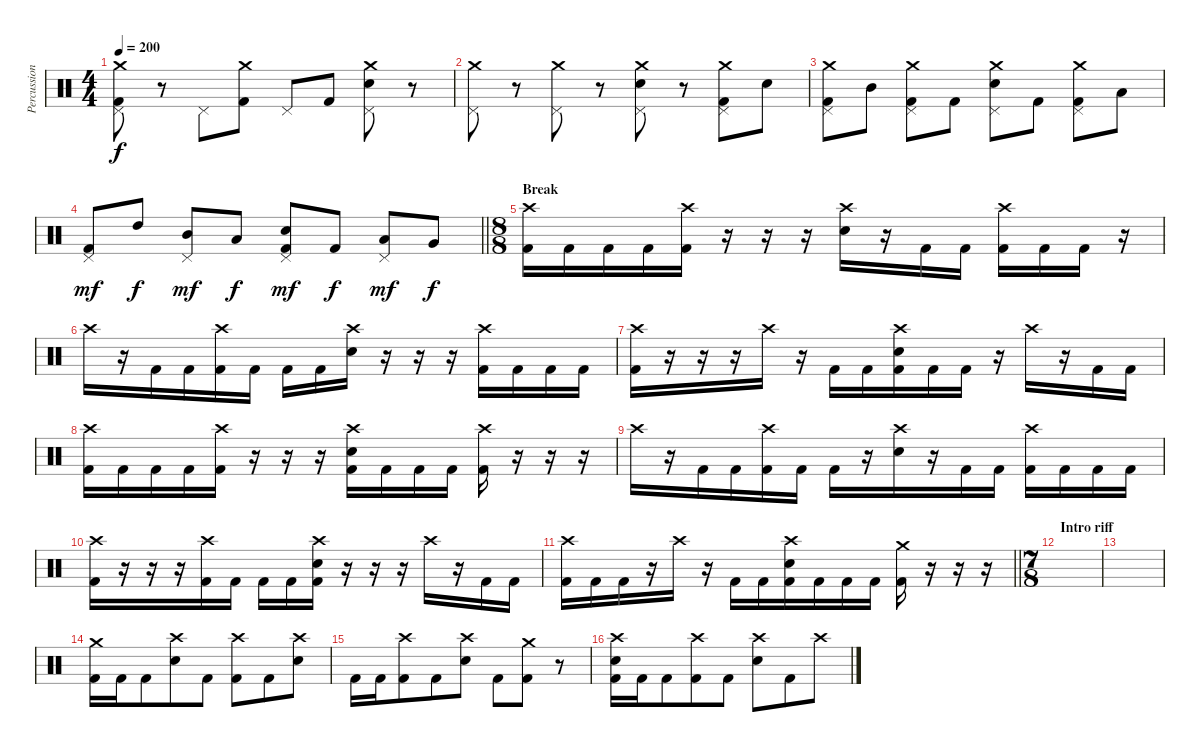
\track ("Percussions" "Percussion") {instrument percussion}
\staff {score}
\articulation defaults
\ts (4 4)
\tempo 200
\clef neutral
\ks c
("Crash medium (hit)" "Pedal Hi-Hat (hit)" "Kick (hit) 2").8{dy f} r.8 "Pedal Hi-Hat (hit)".8 ("Crash medium (hit)" "Kick (hit) 2").8 "Pedal Hi-Hat (hit)".8 "Kick (hit) 2".8 ("Crash medium (hit)" "Pedal Hi-Hat (hit)" "Electric Snare (hit)").8 r.8 |
("Crash medium (hit)" "Pedal Hi-Hat (hit)").8 r.8 ("Crash medium (hit)" "Pedal Hi-Hat (hit)").8 r.8 ("Crash medium (hit)" "Pedal Hi-Hat (hit)" "Electric Snare (hit)").8 r.8 ("Crash medium (hit)" "Pedal Hi-Hat (hit)" "Kick (hit) 2").8 "Electric Snare (hit)".8 |
("Crash medium (hit)" "Pedal Hi-Hat (hit)" "Kick (hit) 2").8 "Mid Tom (hit)".8 ("Crash medium (hit)" "Pedal Hi-Hat (hit)" "Kick (hit) 2").8 "Kick (hit) 2".8 ("Crash medium (hit)" "Pedal Hi-Hat (hit)" "Electric Snare (hit)").8 "Kick (hit) 2".8 ("Crash medium (hit)" "Pedal Hi-Hat (hit)" "Kick (hit) 2").8 "Low Tom (hit)".8 |
\barLineRight lightlight
("Pedal Hi-Hat (hit)" "Kick (hit) 2").8{dy mf} "High Tom (hit)".8{dy f} ("Pedal Hi-Hat (hit)" "Mid Tom (hit)").8{dy mf} "Low Tom (hit)".8{dy f} ("Pedal Hi-Hat (hit)" "Electric Snare (hit)" "Kick (hit) 2").8{dy mf} "Kick (hit) 2".8{dy f} ("Pedal Hi-Hat (hit)" "Low Tom (hit)").8{dy mf} "Very Low Tom (hit)".8{dy f} |
\ts (8 8)
\section ("" "Break")
("Crash high (hit)" "Kick (hit) 2").16 "Kick (hit) 2".16 "Kick (hit) 2".16 "Kick (hit) 2".16 ("Crash high (hit)" "Kick (hit) 2").16 r.16 r.16 r.16 ("Crash high (hit)" "Electric Snare (hit)").16 r.16 "Kick (hit) 2".16 "Kick (hit) 2".16 ("Crash high (hit)" "Kick (hit) 2").16 "Kick (hit) 2".16 "Kick (hit) 2".16 r.16 |
"Crash high (hit)".16 r.16 "Kick (hit) 2".16 "Kick (hit) 2".16 ("Crash high (hit)" "Kick (hit) 2").16 "Kick (hit) 2".16 "Kick (hit) 2".16 "Kick (hit) 2".16 ("Crash high (hit)" "Electric Snare (hit)").16 r.16 r.16 r.16 ("Crash high (hit)" "Kick (hit) 2").16 "Kick (hit) 2".16 "Kick (hit) 2".16 "Kick (hit) 2".16 |
("Crash high (hit)" "Kick (hit) 2").16 r.16 r.16 r.16 "Crash high (hit)".16 r.16 "Kick (hit) 2".16 "Kick (hit) 2".16 ("Crash high (hit)" "Electric Snare (hit)" "Kick (hit) 2").16 "Kick (hit) 2".16 "Kick (hit) 2".16 r.16 "Crash high (hit)".16 r.16 "Kick (hit) 2".16 "Kick (hit) 2".16 |
("Crash high (hit)" "Kick (hit) 2").16 "Kick (hit) 2".16 "Kick (hit) 2".16 "Kick (hit) 2".16 ("Crash high (hit)" "Kick (hit) 2").16 r.16 r.16 r.16 ("Crash high (hit)" "Electric Snare (hit)" "Kick (hit) 2").16 "Kick (hit) 2".16 "Kick (hit) 2".16 "Kick (hit) 2".16 ("Crash high (hit)" "Kick (hit) 2").16 r.16 r.16 r.16 |
"Crash high (hit)".16 r.16 "Kick (hit) 2".16 "Kick (hit) 2".16 ("Crash high (hit)" "Kick (hit) 2").16 "Kick (hit) 2".16 "Kick (hit) 2".16 r.16 ("Crash high (hit)" "Electric Snare (hit)").16 r.16 "Kick (hit) 2".16 "Kick (hit) 2".16 ("Crash high (hit)" "Kick (hit) 2").16 "Kick (hit) 2".16 "Kick (hit) 2".16 "Kick (hit) 2".16 |
("Crash high (hit)" "Kick (hit) 2").16 r.16 r.16 r.16 ("Crash high (hit)" "Kick (hit) 2").16 "Kick (hit) 2".16 "Kick (hit) 2".16 "Kick (hit) 2".16 ("Crash high (hit)" "Electric Snare (hit)" "Kick (hit) 2").16 r.16 r.16 r.16 "Crash high (hit)".16 r.16 "Kick (hit) 2".16 "Kick (hit) 2".16 |
\barLineRight lightlight
("Crash high (hit)" "Kick (hit) 2").16 "Kick (hit) 2".16 "Kick (hit) 2".16 r.16 "Crash high (hit)".16 r.16 "Kick (hit) 2".16 "Kick (hit) 2".16 ("Crash high (hit)" "Electric Snare (hit)" "Kick (hit) 2").16 "Kick (hit) 2".16 "Kick (hit) 2".16 "Kick (hit) 2".16 ("Crash medium (hit)" "Kick (hit) 2").16 r.16 r.16 r.16 |
\ts (7 8)
\section ("" "Intro riff")
|
|
("Crash medium (hit)" "Kick (hit) 2").16 "Kick (hit) 2".16 "Kick (hit) 2".8 ("Crash high (hit)" "Electric Snare (hit)").8 "Kick (hit) 2".8 ("Crash high (hit)" "Kick (hit) 2").8 "Kick (hit) 2".8 ("Crash high (hit)" "Electric Snare (hit)").8 |
"Kick (hit) 2".16 "Kick (hit) 2".16 ("Crash high (hit)" "Kick (hit) 2").8 "Kick (hit) 2".8 ("Crash high (hit)" "Electric Snare (hit)").8 "Kick (hit) 2".8 ("Crash medium (hit)" "Kick (hit) 2").8 r.8 |
("Crash high (hit)" "Electric Snare (hit)" "Kick (hit) 2").16 "Kick (hit) 2".16 "Kick (hit) 2".8 ("Crash high (hit)" "Kick (hit) 2").8 "Kick (hit) 2".8 ("Crash high (hit)" "Electric Snare (hit)").8 "Kick (hit) 2".8 "Crash high (hit)".8
